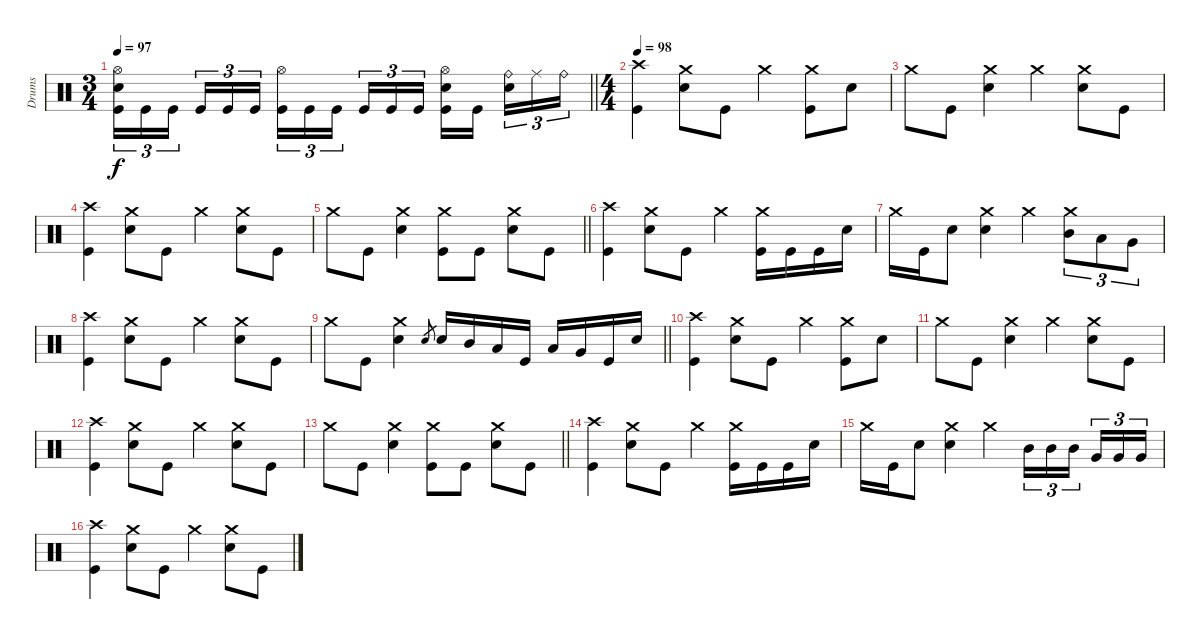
\track ("Drums" "Drums") {instrument percussion}
\staff
\articulation defaults
\ts (3 4)
\tempo 97
\clef neutral
\barLineRight lightlight
\ks c
("Hi-Hat (open)" "Electric Snare (hit)" "Kick (hit)").16{tu (3 2) dy f} "Kick (hit)".16{tu (3 2)} "Kick (hit)".16{tu (3 2) beam splitsecondary} "Kick (hit)".16{tu (3 2)} "Kick (hit)".16{tu (3 2)} "Kick (hit)".16{tu (3 2)} ("Hi-Hat (open)" "Kick (hit)").16{tu (3 2)} "Kick (hit)".16{tu (3 2)} "Kick (hit)".16{tu (3 2) beam splitsecondary} "Kick (hit)".16{tu (3 2)} "Kick (hit)".16{tu (3 2)} "Kick (hit)".16{tu (3 2)} ("Hi-Hat (open)" "Electric Snare (hit)" "Kick (hit)").16 "Kick (hit)".16{beam splitsecondary} ("Ride (bell)" "Electric Snare (hit)").16{tu (3 2)} "Ride (middle)".16{tu (3 2)} "Ride (bell)".16{tu (3 2)} |
\ts (4 4)
\section ("" "")
\tempo 98
("Crash high (hit)" "Kick (hit)").4 ("Crash medium (hit)" "Electric Snare (hit)").8 "Kick (hit)".8 "Crash medium (hit)".4 ("Crash medium (hit)" "Kick (hit)").8 "Electric Snare (hit)".8 |
"Crash medium (hit)".8 "Kick (hit)".8 ("Crash medium (hit)" "Electric Snare (hit)").4 "Crash medium (hit)".4 ("Crash medium (hit)" "Electric Snare (hit)").8 "Kick (hit)".8 |
("Crash high (hit)" "Kick (hit)").4 ("Crash medium (hit)" "Electric Snare (hit)").8 "Kick (hit)".8 "Crash medium (hit)".4 ("Crash medium (hit)" "Electric Snare (hit)").8 "Kick (hit)".8 |
\barLineRight lightlight "Crash medium (hit)".8 "Kick (hit)".8
("Crash medium (hit)" "Electric Snare (hit)").4 ("Crash medium (hit)" "Kick (hit)").8 "Kick (hit)".8 ("Crash medium (hit)" "Electric Snare (hit)").8 "Kick (hit)".8 |
("Crash high (hit)" "Kick (hit)").4 ("Crash medium (hit)" "Electric Snare (hit)").8 "Kick (hit)".8 "Crash medium (hit)".4 ("Crash medium (hit)" "Kick (hit)").16 "Kick (hit)".16 "Kick (hit)".16 "Electric Snare (hit)".16 |
"Crash medium (hit)".16 "Kick (hit)".16 "Electric Snare (hit)".8 ("Crash medium (hit)" "Electric Snare (hit)").4 "Crash medium (hit)".4 ("Crash medium (hit)" "Mid Tom (hit)").8{tu (3 2)} "Low Tom (hit)".8{tu (3 2)} "Very Low Tom (hit)".8{tu (3 2)} |
("Crash high (hit)" "Kick (hit)").4 ("Crash medium (hit)" "Electric Snare (hit)").8 "Kick (hit)".8 "Crash medium (hit)".4 ("Crash medium (hit)" "Electric Snare (hit)").8 "Kick (hit)".8 |
\barLineRight lightlight "Crash medium (hit)".8 "Kick (hit)".8
("Crash medium (hit)" "Electric Snare (hit)").4 "Electric Snare (hit)".8{gr} "Electric Snare (hit)".16 "Mid Tom (hit)".16 "Low Tom (hit)".16 "Kick (hit)".16 "Low Tom (hit)".16 "Very Low Tom (hit)".16 "Kick (hit)".16 "Electric Snare (hit)".16 |
("Crash high (hit)" "Kick (hit)").4 ("Crash medium (hit)" "Electric Snare (hit)").8 "Kick (hit)".8 "Crash medium (hit)".4 ("Crash medium (hit)" "Kick (hit)").8 "Electric Snare (hit)".8 |
"Crash medium (hit)".8 "Kick (hit)".8 ("Crash medium (hit)" "Electric Snare (hit)").4 "Crash medium (hit)".4 ("Crash medium (hit)" "Electric Snare (hit)").8 "Kick (hit)".8 |
("Crash high (hit)" "Kick (hit)").4 ("Crash medium (hit)" "Electric Snare (hit)").8 "Kick (hit)".8 "Crash medium (hit)".4 ("Crash medium (hit)" "Electric Snare (hit)").8 "Kick (hit)".8 |
\barLineRight lightlight "Crash medium (hit)".8 "Kick (hit)".8
("Crash medium (hit)" "Electric Snare (hit)").4 ("Crash medium (hit)" "Kick (hit)").8 "Kick (hit)".8 ("Crash medium (hit)" "Electric Snare (hit)").8 "Kick (hit)".8 |
("Crash high (hit)" "Kick (hit)").4 ("Crash medium (hit)" "Electric Snare (hit)").8 "Kick (hit)".8 "Crash medium (hit)".4 ("Crash medium (hit)" "Kick (hit)").16 "Kick (hit)".16 "Kick (hit)".16 "Electric Snare (hit)".16 |
"Crash medium (hit)".16 "Kick (hit)".16 "Electric Snare (hit)".8 ("Crash medium (hit)" "Electric Snare (hit)").4 "Crash medium (hit)".4 "Mid Tom (hit)".16{tu (3 2)} "Mid Tom (hit)".16{tu (3 2)} "Mid Tom (hit)".16{tu (3 2) beam splitsecondary} "Very Low Tom (hit)".16{tu (3 2)} "Very Low Tom (hit)".16{tu (3 2)} "Very Low Tom (hit)".16{tu (3 2)} |
("Crash high (hit)" "Kick (hit)").4 ("Crash medium (hit)" "Electric Snare (hit)").8 "Kick (hit)".8 "Crash medium (hit)".4 ("Crash medium (hit)" "Electric Snare (hit)").8 "Kick (hit)".8
